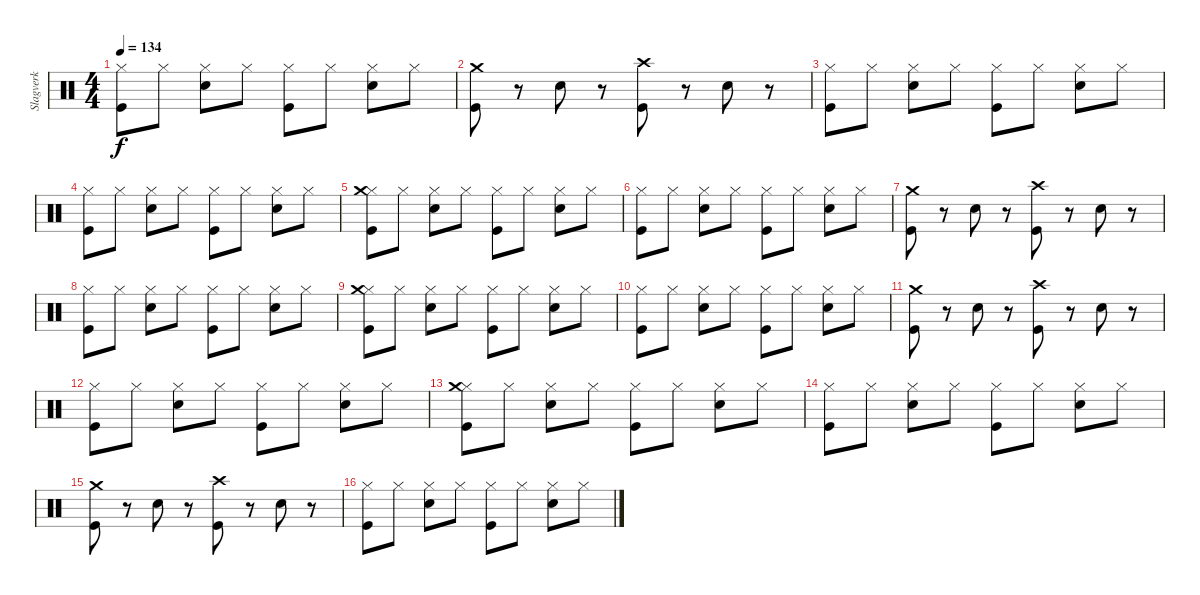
\track ("Slagverk" "Slagverk") {instrument percussion}
\staff
\articulation defaults
\ts (4 4)
\tempo 134
\clef neutral
\ks c
("Hi-Hat (closed)" "Kick (hit)").8{dy f} "Hi-Hat (closed)".8 ("Hi-Hat (closed)" "Electric Snare (hit)").8 "Hi-Hat (closed)".8 ("Hi-Hat (closed)" "Kick (hit)").8 "Hi-Hat (closed)".8 ("Hi-Hat (closed)" "Electric Snare (hit)").8 "Hi-Hat (closed)".8 |
("Crash medium (hit)" "Kick (hit)").8 r.8 "Electric Snare (hit)".8 r.8 ("Crash high (hit)" "Kick (hit)").8 r.8 "Electric Snare (hit)".8 r.8 |
("Hi-Hat (closed)" "Kick (hit)").8 "Hi-Hat (closed)".8 ("Hi-Hat (closed)" "Electric Snare (hit)").8 "Hi-Hat (closed)".8 ("Hi-Hat (closed)" "Kick (hit)").8 "Hi-Hat (closed)".8 ("Hi-Hat (closed)" "Electric Snare (hit)").8 "Hi-Hat (closed)".8 |
("Hi-Hat (closed)" "Kick (hit)").8 "Hi-Hat (closed)".8 ("Hi-Hat (closed)" "Electric Snare (hit)").8 "Hi-Hat (closed)".8 ("Hi-Hat (closed)" "Kick (hit)").8 "Hi-Hat (closed)".8 ("Hi-Hat (closed)" "Electric Snare (hit)").8 "Hi-Hat (closed)".8 |
("Hi-Hat (closed)" "Crash medium (hit)" "Kick (hit)").8 "Hi-Hat (closed)".8 ("Hi-Hat (closed)" "Electric Snare (hit)").8 "Hi-Hat (closed)".8 ("Hi-Hat (closed)" "Kick (hit)").8 "Hi-Hat (closed)".8 ("Hi-Hat (closed)" "Electric Snare (hit)").8 "Hi-Hat (closed)".8 |
("Hi-Hat (closed)" "Kick (hit)").8 "Hi-Hat (closed)".8 ("Hi-Hat (closed)" "Electric Snare (hit)").8 "Hi-Hat (closed)".8 ("Hi-Hat (closed)" "Kick (hit)").8 "Hi-Hat (closed)".8 ("Hi-Hat (closed)" "Electric Snare (hit)").8 "Hi-Hat (closed)".8 |
("Crash medium (hit)" "Kick (hit)").8 r.8 "Electric Snare (hit)".8 r.8 ("Crash high (hit)" "Kick (hit)").8 r.8 "Electric Snare (hit)".8 r.8 |
("Hi-Hat (closed)" "Kick (hit)").8 "Hi-Hat (closed)".8 ("Hi-Hat (closed)" "Electric Snare (hit)").8 "Hi-Hat (closed)".8 ("Hi-Hat (closed)" "Kick (hit)").8 "Hi-Hat (closed)".8 ("Hi-Hat (closed)" "Electric Snare (hit)").8 "Hi-Hat (closed)".8 |
("Hi-Hat (closed)" "Crash medium (hit)" "Kick (hit)").8 "Hi-Hat (closed)".8 ("Hi-Hat (closed)" "Electric Snare (hit)").8 "Hi-Hat (closed)".8 ("Hi-Hat (closed)" "Kick (hit)").8 "Hi-Hat (closed)".8 ("Hi-Hat (closed)" "Electric Snare (hit)").8 "Hi-Hat (closed)".8 |
("Hi-Hat (closed)" "Kick (hit)").8 "Hi-Hat (closed)".8 ("Hi-Hat (closed)" "Electric Snare (hit)").8 "Hi-Hat (closed)".8 ("Hi-Hat (closed)" "Kick (hit)").8 "Hi-Hat (closed)".8 ("Hi-Hat (closed)" "Electric Snare (hit)").8 "Hi-Hat (closed)".8 |
("Crash medium (hit)" "Kick (hit)").8 r.8 "Electric Snare (hit)".8 r.8 ("Crash high (hit)" "Kick (hit)").8 r.8 "Electric Snare (hit)".8 r.8 |
("Hi-Hat (closed)" "Kick (hit)").8 "Hi-Hat (closed)".8 ("Hi-Hat (closed)" "Electric Snare (hit)").8 "Hi-Hat (closed)".8 ("Hi-Hat (closed)" "Kick (hit)").8 "Hi-Hat (closed)".8 ("Hi-Hat (closed)" "Electric Snare (hit)").8 "Hi-Hat (closed)".8 |
("Hi-Hat (closed)" "Crash medium (hit)" "Kick (hit)").8 "Hi-Hat (closed)".8 ("Hi-Hat (closed)" "Electric Snare (hit)").8 "Hi-Hat (closed)".8 ("Hi-Hat (closed)" "Kick (hit)").8 "Hi-Hat (closed)".8 ("Hi-Hat (closed)" "Electric Snare (hit)").8 "Hi-Hat (closed)".8 |
("Hi-Hat (closed)" "Kick (hit)").8 "Hi-Hat (closed)".8 ("Hi-Hat (closed)" "Electric Snare (hit)").8 "Hi-Hat (closed)".8 ("Hi-Hat (closed)" "Kick (hit)").8 "Hi-Hat (closed)".8 ("Hi-Hat (closed)" "Electric Snare (hit)").8 "Hi-Hat (closed)".8 |
("Crash medium (hit)" "Kick (hit)").8 r.8 "Electric Snare (hit)".8 r.8 ("Crash high (hit)" "Kick (hit)").8 r.8 "Electric Snare (hit)".8 r.8 |
("Hi-Hat (closed)" "Kick (hit)").8 "Hi-Hat (closed)".8 ("Hi-Hat (closed)" "Electric Snare (hit)").8 "Hi-Hat (closed)".8 ("Hi-Hat (closed)" "Kick (hit)").8 "Hi-Hat (closed)".8 ("Hi-Hat (closed)" "Electric Snare (hit)").8 "Hi-Hat (closed)".8
